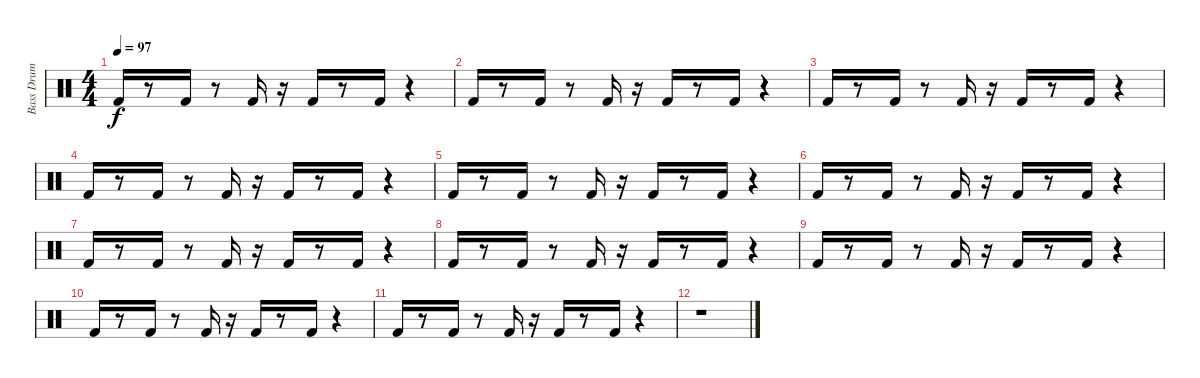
\track ("Bass Drum" "Bass Drum") {instrument percussion}
\staff {score}
\articulation defaults
\ts (4 4)
\tempo 97
\clef neutral
\ks c "Kick (hit) 2".16{dy f}
r.8 "Kick (hit) 2".16 r.8 "Kick (hit) 2".16 r.16 "Kick (hit) 2".16 r.8 "Kick (hit) 2".16 r.4 |
"Kick (hit) 2".16 r.8 "Kick (hit) 2".16 r.8 "Kick (hit) 2".16 r.16 "Kick (hit) 2".16 r.8 "Kick (hit) 2".16 r.4 |
"Kick (hit) 2".16 r.8 "Kick (hit) 2".16 r.8 "Kick (hit) 2".16 r.16 "Kick (hit) 2".16 r.8 "Kick (hit) 2".16 r.4 |
"Kick (hit) 2".16 r.8 "Kick (hit) 2".16 r.8 "Kick (hit) 2".16 r.16 "Kick (hit) 2".16 r.8 "Kick (hit) 2".16 r.4 |
"Kick (hit) 2".16 r.8 "Kick (hit) 2".16 r.8 "Kick (hit) 2".16 r.16 "Kick (hit) 2".16 r.8 "Kick (hit) 2".16 r.4 |
"Kick (hit) 2".16 r.8 "Kick (hit) 2".16 r.8 "Kick (hit) 2".16 r.16 "Kick (hit) 2".16 r.8 "Kick (hit) 2".16 r.4 |
"Kick (hit) 2".16 r.8 "Kick (hit) 2".16 r.8 "Kick (hit) 2".16 r.16 "Kick (hit) 2".16 r.8 "Kick (hit) 2".16 r.4 |
"Kick (hit) 2".16 r.8 "Kick (hit) 2".16 r.8 "Kick (hit) 2".16 r.16 "Kick (hit) 2".16 r.8 "Kick (hit) 2".16 r.4 |
"Kick (hit) 2".16 r.8 "Kick (hit) 2".16 r.8 "Kick (hit) 2".16 r.16 "Kick (hit) 2".16 r.8 "Kick (hit) 2".16 r.4 |
"Kick (hit) 2".16 r.8 "Kick (hit) 2".16 r.8 "Kick (hit) 2".16 r.16 "Kick (hit) 2".16 r.8 "Kick (hit) 2".16 r.4 |
"Kick (hit) 2".16 r.8 "Kick (hit) 2".16 r.8 "Kick (hit) 2".16 r.16 "Kick (hit) 2".16 r.8 "Kick (hit) 2".16 r.4 |
r.1
